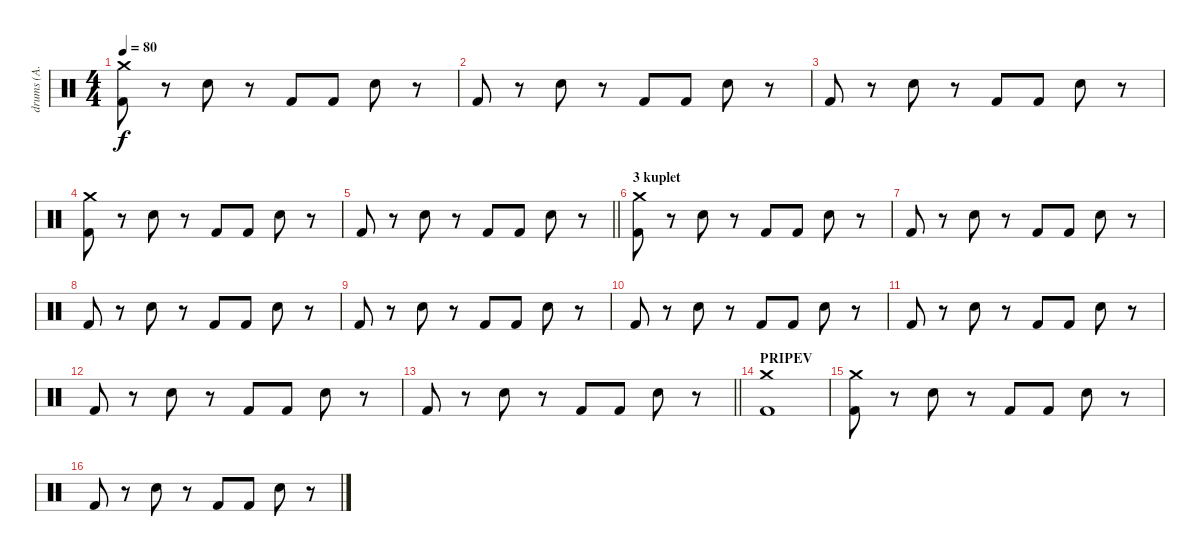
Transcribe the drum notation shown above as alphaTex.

\track ("drums (А. Котов)" "drums (А. ") {instrument percussion}
\staff {score}
\articulation defaults
\ts (4 4)
\tempo 80
\clef neutral
\ks c
("Kick (hit) 2" "Crash medium (hit)").8{dy f} r.8 "Snare (hit) 2".8 r.8 "Kick (hit) 2".8 "Kick (hit) 2".8 "Snare (hit) 2".8 r.8 |
"Kick (hit) 2".8 r.8 "Snare (hit) 2".8 r.8 "Kick (hit) 2".8 "Kick (hit) 2".8 "Snare (hit) 2".8 r.8 |
"Kick (hit) 2".8 r.8 "Snare (hit) 2".8 r.8 "Kick (hit) 2".8 "Kick (hit) 2".8 "Snare (hit) 2".8 r.8 |
("Kick (hit) 2" "Crash medium (hit)").8 r.8 "Snare (hit) 2".8 r.8 "Kick (hit) 2".8 "Kick (hit) 2".8 "Snare (hit) 2".8 r.8 |
\barLineRight lightlight "Kick (hit) 2".8
r.8 "Snare (hit) 2".8 r.8 "Kick (hit) 2".8 "Kick (hit) 2".8 "Snare (hit) 2".8 r.8 |
\section ("" "3 kuplet")
("Kick (hit) 2" "Crash medium (hit)").8 r.8 "Snare (hit) 2".8 r.8 "Kick (hit) 2".8 "Kick (hit) 2".8 "Snare (hit) 2".8 r.8 |
"Kick (hit) 2".8 r.8 "Snare (hit) 2".8 r.8 "Kick (hit) 2".8 "Kick (hit) 2".8 "Snare (hit) 2".8 r.8 |
"Kick (hit) 2".8 r.8 "Snare (hit) 2".8 r.8 "Kick (hit) 2".8 "Kick (hit) 2".8 "Snare (hit) 2".8 r.8 |
"Kick (hit) 2".8 r.8 "Snare (hit) 2".8 r.8 "Kick (hit) 2".8 "Kick (hit) 2".8 "Snare (hit) 2".8 r.8 |
"Kick (hit) 2".8 r.8 "Snare (hit) 2".8 r.8 "Kick (hit) 2".8 "Kick (hit) 2".8 "Snare (hit) 2".8 r.8 |
"Kick (hit) 2".8 r.8 "Snare (hit) 2".8 r.8 "Kick (hit) 2".8 "Kick (hit) 2".8 "Snare (hit) 2".8 r.8 |
"Kick (hit) 2".8 r.8 "Snare (hit) 2".8 r.8 "Kick (hit) 2".8 "Kick (hit) 2".8 "Snare (hit) 2".8 r.8 |
\barLineRight lightlight "Kick (hit) 2".8
r.8 "Snare (hit) 2".8 r.8 "Kick (hit) 2".8 "Kick (hit) 2".8 "Snare (hit) 2".8 r.8 |
\section ("" "PRIPEV")
("Kick (hit) 2" "Crash medium (hit)").1 |
("Kick (hit) 2" "Crash medium (hit)").8 r.8 "Snare (hit) 2".8 r.8 "Kick (hit) 2".8 "Kick (hit) 2".8 "Snare (hit) 2".8 r.8 |
"Kick (hit) 2".8 r.8 "Snare (hit) 2".8 r.8 "Kick (hit) 2".8 "Kick (hit) 2".8 "Snare (hit) 2".8 r.8
